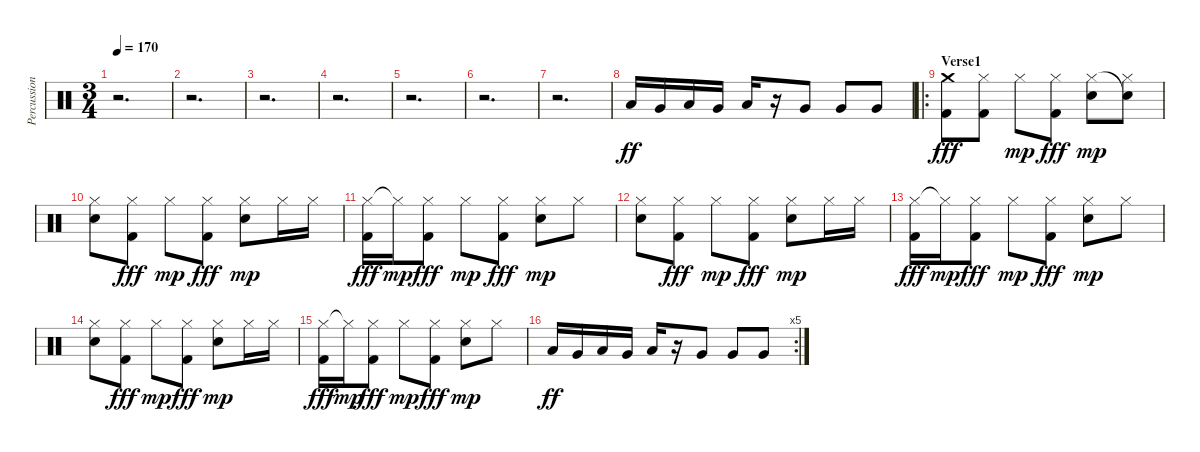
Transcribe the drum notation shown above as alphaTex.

\track ("Percussion" "Percussion") {instrument percussion}
\staff {score}
\articulation defaults
\ts (3 4)
\tempo 170
\clef neutral
\ks c
r.2{d dy ff} |
r.2{d} |
r.2{d} |
r.2{d} |
r.2{d} |
r.2{d} |
r.2{d} |
"Low Tom (hit)".16 "Very Low Tom (hit)".16 "Low Tom (hit)".16 "Very Low Tom (hit)".16 "Low Tom (hit)".16 r.16 "Very Low Tom (hit)".8 "Very Low Tom (hit)".8 "Very Low Tom (hit)".8 |
\ro
\section ("" "Verse1")
("Crash medium (hit)" "Kick (hit) 2").8{dy fff} ("Hi-Hat (closed)" "Kick (hit) 2").8 "Hi-Hat (closed)".8{dy mp} ("Hi-Hat (closed)" "Kick (hit) 2").8{dy fff} ("Hi-Hat (closed)" "Electric Snare (hit)").8{dy mp} ("Snare (hit)"{t} "Hi-Hat (closed)").8 |
("Hi-Hat (closed)" "Electric Snare (hit)").8 ("Hi-Hat (closed)" "Kick (hit) 2").8{dy fff} "Hi-Hat (closed)".8{dy mp} ("Hi-Hat (closed)" "Kick (hit) 2").8{dy fff} ("Hi-Hat (closed)" "Electric Snare (hit)").8{dy mp} "Hi-Hat (closed)".16 "Hi-Hat (closed)".16 |
("Hi-Hat (closed)" "Kick (hit) 2").16{dy fff} "Hi-Hat (closed)"{t}.16{dy mp} ("Hi-Hat (closed)" "Kick (hit) 2").8{dy fff} "Hi-Hat (closed)".8{dy mp} ("Hi-Hat (closed)" "Kick (hit) 2").8{dy fff} ("Hi-Hat (closed)" "Electric Snare (hit)").8{dy mp} "Hi-Hat (closed)".8 |
("Hi-Hat (closed)" "Electric Snare (hit)").8 ("Hi-Hat (closed)" "Kick (hit) 2").8{dy fff} "Hi-Hat (closed)".8{dy mp} ("Hi-Hat (closed)" "Kick (hit) 2").8{dy fff} ("Hi-Hat (closed)" "Electric Snare (hit)").8{dy mp} "Hi-Hat (closed)".16 "Hi-Hat (closed)".16 |
("Hi-Hat (closed)" "Kick (hit) 2").16{dy fff} "Hi-Hat (closed)"{t}.16{dy mp} ("Hi-Hat (closed)" "Kick (hit) 2").8{dy fff} "Hi-Hat (closed)".8{dy mp} ("Hi-Hat (closed)" "Kick (hit) 2").8{dy fff} ("Hi-Hat (closed)" "Electric Snare (hit)").8{dy mp} "Hi-Hat (closed)".8 |
("Hi-Hat (closed)" "Electric Snare (hit)").8 ("Hi-Hat (closed)" "Kick (hit) 2").8{dy fff} "Hi-Hat (closed)".8{dy mp} ("Hi-Hat (closed)" "Kick (hit) 2").8{dy fff} ("Hi-Hat (closed)" "Electric Snare (hit)").8{dy mp} "Hi-Hat (closed)".16 "Hi-Hat (closed)".16 |
("Hi-Hat (closed)" "Kick (hit) 2").16{dy fff} "Hi-Hat (closed)"{t}.16{dy mp} ("Hi-Hat (closed)" "Kick (hit) 2").8{dy fff} "Hi-Hat (closed)".8{dy mp} ("Hi-Hat (closed)" "Kick (hit) 2").8{dy fff} ("Hi-Hat (closed)" "Electric Snare (hit)").8{dy mp} "Hi-Hat (closed)".8 |
\rc 5 "Low Tom (hit)".16{dy ff} "Very Low Tom (hit)".16 "Low Tom (hit)".16 "Very Low Tom (hit)".16 "Low Tom (hit)".16
r.16 "Very Low Tom (hit)".8 "Very Low Tom (hit)".8 "Very Low Tom (hit)".8
